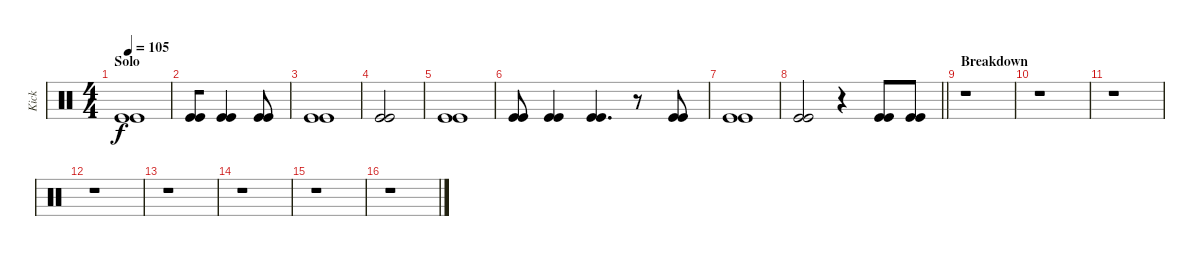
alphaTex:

\track ("Kick" "Kick") {instrument percussion}
\staff {score}
\articulation defaults
\ts (4 4)
\section ("" "Solo")
\tempo 105
\clef neutral
\ks c
("Kick (hit)" "Kick (hit)").1{dy f} |
("Kick (hit)" "Kick (hit)").8{beam merge} ("Kick (hit)" "Kick (hit)").4 ("Kick (hit)" "Kick (hit)").8 |
("Kick (hit)" "Kick (hit)").1 |
("Kick (hit)" "Kick (hit)").2 |
("Kick (hit)" "Kick (hit)").1 |
("Kick (hit)" "Kick (hit)").8 ("Kick (hit)" "Kick (hit)").4 ("Kick (hit)" "Kick (hit)").4{d} r.8 ("Kick (hit)" "Kick (hit)").8 |
("Kick (hit)" "Kick (hit)").1 |
\barLineRight lightlight
("Kick (hit)" "Kick (hit)").2{beam merge} r.4{beam merge} ("Kick (hit)" "Kick (hit)").8 ("Kick (hit)" "Kick (hit)").8 |
\section ("" "Breakdown")
r.1 |
r.1 |
r.1 |
r.1 |
r.1 |
r.1 |
r.1 |
r.1
